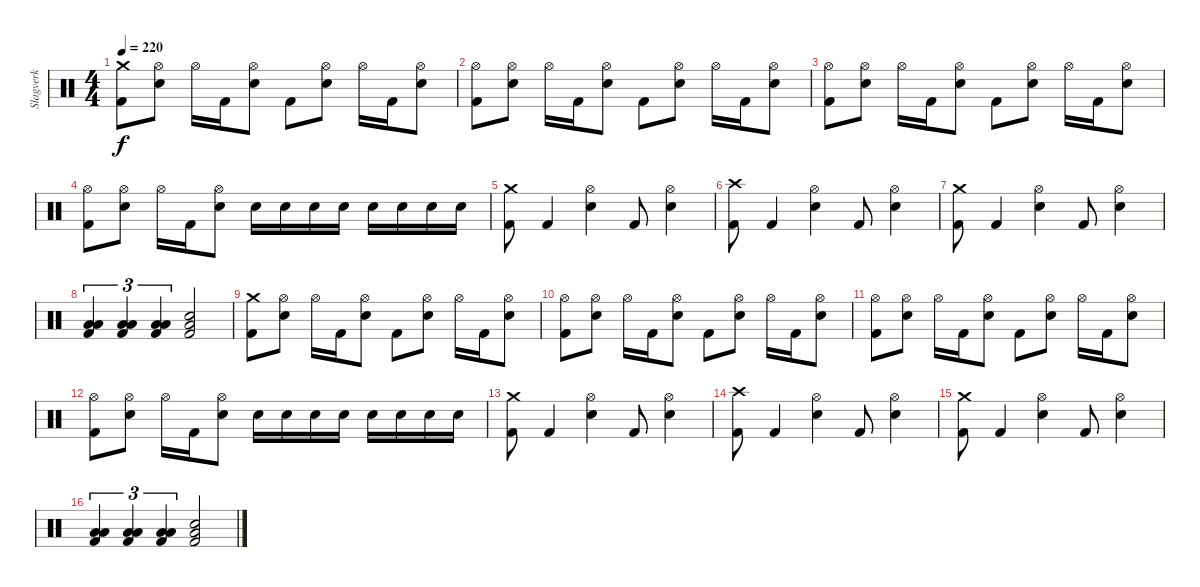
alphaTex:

\track ("Slagverk" "Slagverk") {instrument percussion}
\staff {score}
\articulation defaults
\ts (4 4)
\tempo 220
\clef neutral
\ks c
("Crash medium (hit)" "Kick (hit) 2").8{dy f} ("Electric Snare (hit)" "Hi-Hat (open)").8 "Hi-Hat (open)".16 "Kick (hit) 2".16 ("Electric Snare (hit)" "Hi-Hat (open)").8 "Kick (hit) 2".8 ("Electric Snare (hit)" "Hi-Hat (open)").8 "Hi-Hat (open)".16 "Kick (hit) 2".16 ("Electric Snare (hit)" "Hi-Hat (open)").8 |
("Hi-Hat (open)" "Kick (hit) 2").8 ("Electric Snare (hit)" "Hi-Hat (open)").8 "Hi-Hat (open)".16 "Kick (hit) 2".16 ("Electric Snare (hit)" "Hi-Hat (open)").8 "Kick (hit) 2".8 ("Electric Snare (hit)" "Hi-Hat (open)").8 "Hi-Hat (open)".16 "Kick (hit) 2".16 ("Electric Snare (hit)" "Hi-Hat (open)").8 |
("Hi-Hat (open)" "Kick (hit) 2").8 ("Electric Snare (hit)" "Hi-Hat (open)").8 "Hi-Hat (open)".16 "Kick (hit) 2".16 ("Electric Snare (hit)" "Hi-Hat (open)").8 "Kick (hit) 2".8 ("Electric Snare (hit)" "Hi-Hat (open)").8 "Hi-Hat (open)".16 "Kick (hit) 2".16 ("Electric Snare (hit)" "Hi-Hat (open)").8 |
("Hi-Hat (open)" "Kick (hit) 2").8 ("Electric Snare (hit)" "Hi-Hat (open)").8 "Hi-Hat (open)".16 "Kick (hit) 2".16 ("Electric Snare (hit)" "Hi-Hat (open)").8 "Electric Snare (hit)".16 "Electric Snare (hit)".16 "Electric Snare (hit)".16 "Electric Snare (hit)".16 "Electric Snare (hit)".16 "Electric Snare (hit)".16 "Electric Snare (hit)".16 "Electric Snare (hit)".16 |
("Crash medium (hit)" "Kick (hit) 2").8 "Kick (hit) 2".4 ("Electric Snare (hit)" "Hi-Hat (open)").4 "Kick (hit) 2".8 ("Electric Snare (hit)" "Hi-Hat (open)").4 |
("Crash high (hit)" "Kick (hit) 2").8 "Kick (hit) 2".4 ("Electric Snare (hit)" "Hi-Hat (open)").4 "Kick (hit) 2".8 ("Electric Snare (hit)" "Hi-Hat (open)").4 |
("Crash medium (hit)" "Kick (hit) 2").8 "Kick (hit) 2".4 ("Electric Snare (hit)" "Hi-Hat (open)").4 "Kick (hit) 2".8 ("Electric Snare (hit)" "Hi-Hat (open)").4 |
("Low Tom (hit)" "Low Floor Tom (hit)" "Kick (hit) 2").4{tu (3 2)} ("Low Tom (hit)" "Low Floor Tom (hit)" "Kick (hit) 2").4{tu (3 2)} ("Low Tom (hit)" "Low Floor Tom (hit)" "Kick (hit) 2").4{tu (3 2)} ("Low Tom (hit)" "Electric Snare (hit)" "Kick (hit) 2").2 |
("Crash medium (hit)" "Kick (hit) 2").8 ("Electric Snare (hit)" "Hi-Hat (open)").8 "Hi-Hat (open)".16 "Kick (hit) 2".16 ("Electric Snare (hit)" "Hi-Hat (open)").8 "Kick (hit) 2".8 ("Electric Snare (hit)" "Hi-Hat (open)").8 "Hi-Hat (open)".16 "Kick (hit) 2".16 ("Electric Snare (hit)" "Hi-Hat (open)").8 |
("Hi-Hat (open)" "Kick (hit) 2").8 ("Electric Snare (hit)" "Hi-Hat (open)").8 "Hi-Hat (open)".16 "Kick (hit) 2".16 ("Electric Snare (hit)" "Hi-Hat (open)").8 "Kick (hit) 2".8 ("Electric Snare (hit)" "Hi-Hat (open)").8 "Hi-Hat (open)".16 "Kick (hit) 2".16 ("Electric Snare (hit)" "Hi-Hat (open)").8 |
("Hi-Hat (open)" "Kick (hit) 2").8 ("Electric Snare (hit)" "Hi-Hat (open)").8 "Hi-Hat (open)".16 "Kick (hit) 2".16 ("Electric Snare (hit)" "Hi-Hat (open)").8 "Kick (hit) 2".8 ("Electric Snare (hit)" "Hi-Hat (open)").8 "Hi-Hat (open)".16 "Kick (hit) 2".16 ("Electric Snare (hit)" "Hi-Hat (open)").8 |
("Hi-Hat (open)" "Kick (hit) 2").8 ("Electric Snare (hit)" "Hi-Hat (open)").8 "Hi-Hat (open)".16 "Kick (hit) 2".16 ("Electric Snare (hit)" "Hi-Hat (open)").8 "Electric Snare (hit)".16 "Electric Snare (hit)".16 "Electric Snare (hit)".16 "Electric Snare (hit)".16 "Electric Snare (hit)".16 "Electric Snare (hit)".16 "Electric Snare (hit)".16 "Electric Snare (hit)".16 |
("Crash medium (hit)" "Kick (hit) 2").8 "Kick (hit) 2".4 ("Electric Snare (hit)" "Hi-Hat (open)").4 "Kick (hit) 2".8 ("Electric Snare (hit)" "Hi-Hat (open)").4 |
("Crash high (hit)" "Kick (hit) 2").8 "Kick (hit) 2".4 ("Electric Snare (hit)" "Hi-Hat (open)").4 "Kick (hit) 2".8 ("Electric Snare (hit)" "Hi-Hat (open)").4 |
("Crash medium (hit)" "Kick (hit) 2").8 "Kick (hit) 2".4 ("Electric Snare (hit)" "Hi-Hat (open)").4 "Kick (hit) 2".8 ("Electric Snare (hit)" "Hi-Hat (open)").4 |
("Low Tom (hit)" "Low Floor Tom (hit)" "Kick (hit) 2").4{tu (3 2)} ("Low Tom (hit)" "Low Floor Tom (hit)" "Kick (hit) 2").4{tu (3 2)} ("Low Tom (hit)" "Low Floor Tom (hit)" "Kick (hit) 2").4{tu (3 2)} ("Low Tom (hit)" "Electric Snare (hit)" "Kick (hit) 2").2
